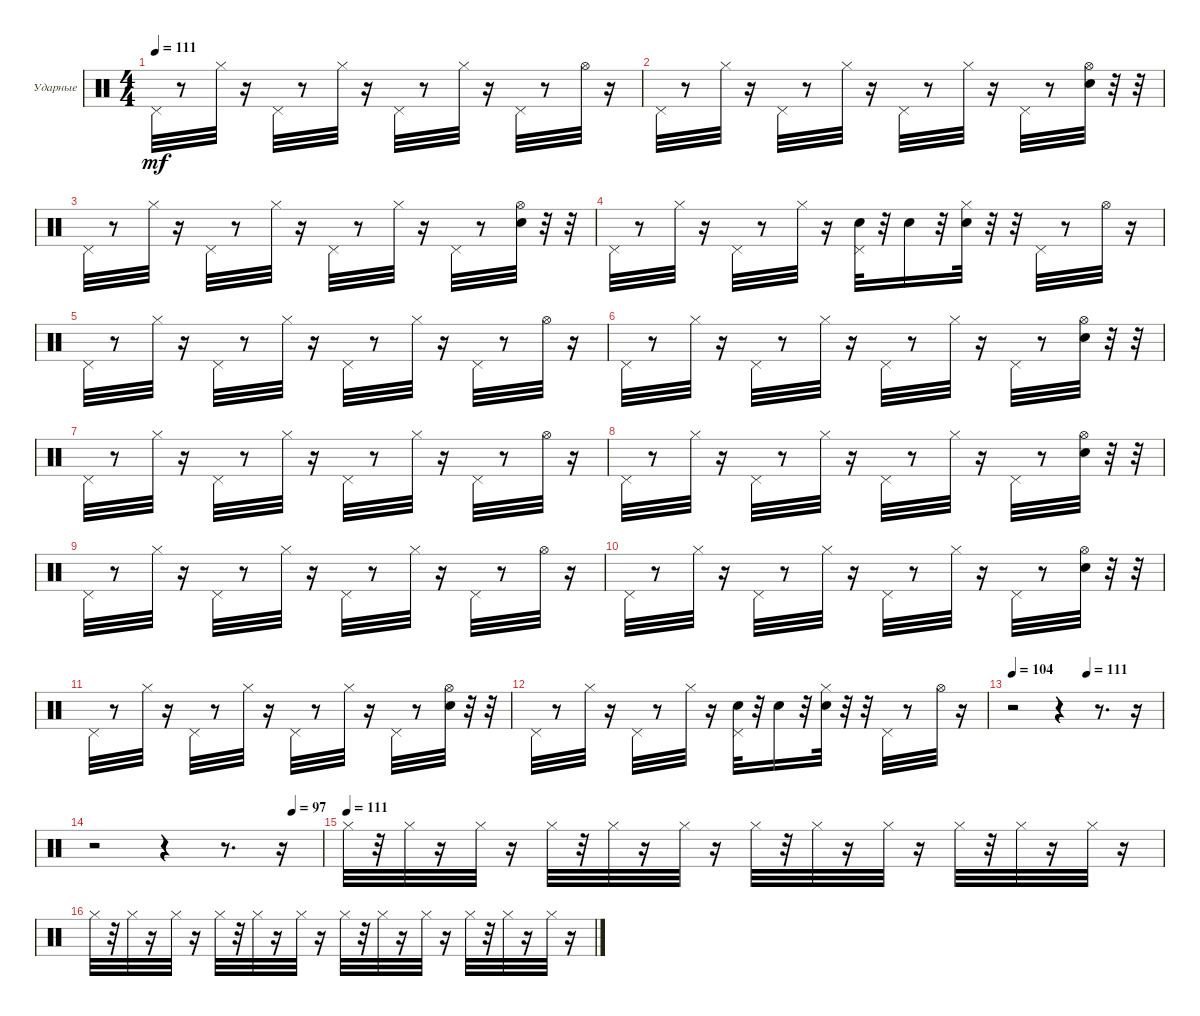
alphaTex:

\bracketExtendMode groupsimilarinstruments
\firstSystemTrackNameOrientation horizontal
\otherSystemsTrackNameOrientation horizontal
\track ("Ударные" "Ударные") {instrument percussion}
\staff {score}
\articulation defaults
\ts (4 4)
\tempo 111
\clef neutral
\ks c "Pedal Hi-Hat (hit)".32{dy mf}
r.8 "Hi-Hat (closed)".32 r.16 "Pedal Hi-Hat (hit)".32 r.8 "Hi-Hat (closed)".32 r.16 "Pedal Hi-Hat (hit)".32 r.8 "Hi-Hat (closed)".32 r.16 "Pedal Hi-Hat (hit)".32 r.8 "Hi-Hat (open)".32 r.16 |
"Pedal Hi-Hat (hit)".32 r.8 "Hi-Hat (closed)".32 r.16 "Pedal Hi-Hat (hit)".32 r.8 "Hi-Hat (closed)".32 r.16 "Pedal Hi-Hat (hit)".32 r.8 "Hi-Hat (closed)".32 r.16 "Pedal Hi-Hat (hit)".32 r.8 ("Snare (hit) 2" "Hi-Hat (open)").32 r.32 r.32 |
"Pedal Hi-Hat (hit)".32 r.8 "Hi-Hat (closed)".32 r.16 "Pedal Hi-Hat (hit)".32 r.8 "Hi-Hat (closed)".32 r.16 "Pedal Hi-Hat (hit)".32 r.8 "Hi-Hat (closed)".32 r.16 "Pedal Hi-Hat (hit)".32 r.8 ("Snare (hit) 2" "Hi-Hat (open)").32 r.32 r.32 |
"Pedal Hi-Hat (hit)".32 r.8 "Hi-Hat (closed)".32 r.16 "Pedal Hi-Hat (hit)".32 r.8 "Hi-Hat (closed)".32 r.16 ("Snare (hit) 2" "Pedal Hi-Hat (hit)").32 r.32 "Snare (hit) 2".16 r.32 ("Snare (hit) 2" "Hi-Hat (closed)").32 r.32 r.32 "Pedal Hi-Hat (hit)".32 r.8 "Hi-Hat (open)".32 r.16 |
"Pedal Hi-Hat (hit)".32 r.8 "Hi-Hat (closed)".32 r.16 "Pedal Hi-Hat (hit)".32 r.8 "Hi-Hat (closed)".32 r.16 "Pedal Hi-Hat (hit)".32 r.8 "Hi-Hat (closed)".32 r.16 "Pedal Hi-Hat (hit)".32 r.8 "Hi-Hat (open)".32 r.16 |
"Pedal Hi-Hat (hit)".32 r.8 "Hi-Hat (closed)".32 r.16 "Pedal Hi-Hat (hit)".32 r.8 "Hi-Hat (closed)".32 r.16 "Pedal Hi-Hat (hit)".32 r.8 "Hi-Hat (closed)".32 r.16 "Pedal Hi-Hat (hit)".32 r.8 ("Hi-Hat (open)" "Snare (hit) 2").32 r.32 r.32 |
"Pedal Hi-Hat (hit)".32 r.8 "Hi-Hat (closed)".32 r.16 "Pedal Hi-Hat (hit)".32 r.8 "Hi-Hat (closed)".32 r.16 "Pedal Hi-Hat (hit)".32 r.8 "Hi-Hat (closed)".32 r.16 "Pedal Hi-Hat (hit)".32 r.8 "Hi-Hat (open)".32 r.16 |
"Pedal Hi-Hat (hit)".32 r.8 "Hi-Hat (closed)".32 r.16 "Pedal Hi-Hat (hit)".32 r.8 "Hi-Hat (closed)".32 r.16 "Pedal Hi-Hat (hit)".32 r.8 "Hi-Hat (closed)".32 r.16 "Pedal Hi-Hat (hit)".32 r.8 ("Hi-Hat (open)" "Snare (hit) 2").32 r.32 r.32 |
"Pedal Hi-Hat (hit)".32 r.8 "Hi-Hat (closed)".32 r.16 "Pedal Hi-Hat (hit)".32 r.8 "Hi-Hat (closed)".32 r.16 "Pedal Hi-Hat (hit)".32 r.8 "Hi-Hat (closed)".32 r.16 "Pedal Hi-Hat (hit)".32 r.8 "Hi-Hat (open)".32 r.16 |
"Pedal Hi-Hat (hit)".32 r.8 "Hi-Hat (closed)".32 r.16 "Pedal Hi-Hat (hit)".32 r.8 "Hi-Hat (closed)".32 r.16 "Pedal Hi-Hat (hit)".32 r.8 "Hi-Hat (closed)".32 r.16 "Pedal Hi-Hat (hit)".32 r.8 ("Snare (hit) 2" "Hi-Hat (open)").32 r.32 r.32 |
"Pedal Hi-Hat (hit)".32 r.8 "Hi-Hat (closed)".32 r.16 "Pedal Hi-Hat (hit)".32 r.8 "Hi-Hat (closed)".32 r.16 "Pedal Hi-Hat (hit)".32 r.8 "Hi-Hat (closed)".32 r.16 "Pedal Hi-Hat (hit)".32 r.8 ("Snare (hit) 2" "Hi-Hat (open)").32 r.32 r.32 |
"Pedal Hi-Hat (hit)".32 r.8 "Hi-Hat (closed)".32 r.16 "Pedal Hi-Hat (hit)".32 r.8 "Hi-Hat (closed)".32 r.16 ("Snare (hit) 2" "Pedal Hi-Hat (hit)").32 r.32 "Snare (hit) 2".16 r.32 ("Snare (hit) 2" "Hi-Hat (closed)").32 r.32 r.32 "Pedal Hi-Hat (hit)".32 r.8 "Hi-Hat (open)".32 r.16 |
\tempo (104 0.0015625)
\tempo (111 0.5)
r.2 r.4 r.8{d} r.16 |
\tempo (97 0.869792)
r.2 r.4 r.8{d} r.16 |
\tempo (111)
"Hi-Hat (closed)".32 r.32 "Hi-Hat (closed)".32 r.16 "Hi-Hat (closed)".32 r.16 "Hi-Hat (closed)".32 r.32 "Hi-Hat (closed)".32 r.16 "Hi-Hat (closed)".32 r.16 "Hi-Hat (closed)".32 r.32 "Hi-Hat (closed)".32 r.16 "Hi-Hat (closed)".32 r.16 "Hi-Hat (closed)".32 r.32 "Hi-Hat (closed)".32 r.16 "Hi-Hat (closed)".32 r.16 |
"Hi-Hat (closed)".32 r.32 "Hi-Hat (closed)".32 r.16 "Hi-Hat (closed)".32 r.16 "Hi-Hat (closed)".32 r.32 "Hi-Hat (closed)".32 r.16 "Hi-Hat (closed)".32 r.16 "Hi-Hat (closed)".32 r.32 "Hi-Hat (closed)".32 r.16 "Hi-Hat (closed)".32 r.16 "Hi-Hat (closed)".32 r.32 "Hi-Hat (closed)".32 r.16 "Hi-Hat (closed)".32 r.16
